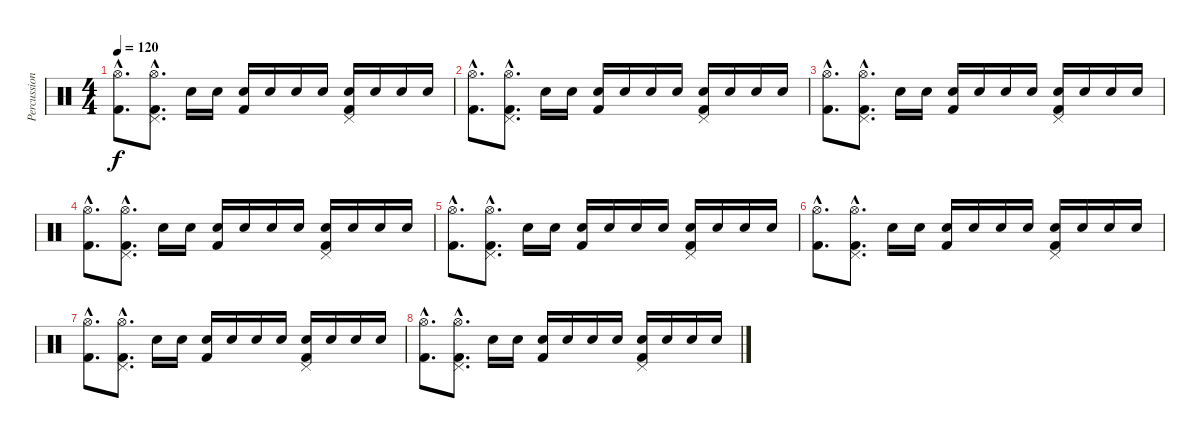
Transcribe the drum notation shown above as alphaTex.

\track ("Percussion" "Percussion") {instrument percussion}
\staff {score}
\articulation defaults
\ts (4 4)
\tempo 120
\clef neutral
\ks c
("Hi-Hat (open)"{hac} "Kick (hit) 2"{hac}).8{d dy f} ("Hi-Hat (open)"{hac} "Kick (hit) 2"{hac} "Pedal Hi-Hat (hit)"{hac}).8{d} "Electric Snare (hit)".16 "Electric Snare (hit)".16 ("Electric Snare (hit)" "Kick (hit) 2").16 "Electric Snare (hit)".16 "Electric Snare (hit)".16 "Electric Snare (hit)".16 ("Electric Snare (hit)" "Kick (hit) 2" "Pedal Hi-Hat (hit)").16 "Electric Snare (hit)".16 "Electric Snare (hit)".16 "Electric Snare (hit)".16 |
("Hi-Hat (open)"{hac} "Kick (hit) 2"{hac}).8{d} ("Hi-Hat (open)"{hac} "Kick (hit) 2"{hac} "Pedal Hi-Hat (hit)"{hac}).8{d} "Electric Snare (hit)".16 "Electric Snare (hit)".16 ("Electric Snare (hit)" "Kick (hit) 2").16 "Electric Snare (hit)".16 "Electric Snare (hit)".16 "Electric Snare (hit)".16 ("Electric Snare (hit)" "Kick (hit) 2" "Pedal Hi-Hat (hit)").16 "Electric Snare (hit)".16 "Electric Snare (hit)".16 "Electric Snare (hit)".16 |
("Hi-Hat (open)"{hac} "Kick (hit) 2"{hac}).8{d} ("Hi-Hat (open)"{hac} "Kick (hit) 2"{hac} "Pedal Hi-Hat (hit)"{hac}).8{d} "Electric Snare (hit)".16 "Electric Snare (hit)".16 ("Electric Snare (hit)" "Kick (hit) 2").16 "Electric Snare (hit)".16 "Electric Snare (hit)".16 "Electric Snare (hit)".16 ("Electric Snare (hit)" "Kick (hit) 2" "Pedal Hi-Hat (hit)").16 "Electric Snare (hit)".16 "Electric Snare (hit)".16 "Electric Snare (hit)".16 |
("Hi-Hat (open)"{hac} "Kick (hit) 2"{hac}).8{d} ("Hi-Hat (open)"{hac} "Kick (hit) 2"{hac} "Pedal Hi-Hat (hit)"{hac}).8{d} "Electric Snare (hit)".16 "Electric Snare (hit)".16 ("Electric Snare (hit)" "Kick (hit) 2").16 "Electric Snare (hit)".16 "Electric Snare (hit)".16 "Electric Snare (hit)".16 ("Electric Snare (hit)" "Kick (hit) 2" "Pedal Hi-Hat (hit)").16 "Electric Snare (hit)".16 "Electric Snare (hit)".16 "Electric Snare (hit)".16 |
("Hi-Hat (open)"{hac} "Kick (hit) 2"{hac}).8{d} ("Hi-Hat (open)"{hac} "Kick (hit) 2"{hac} "Pedal Hi-Hat (hit)"{hac}).8{d} "Electric Snare (hit)".16 "Electric Snare (hit)".16 ("Electric Snare (hit)" "Kick (hit) 2").16 "Electric Snare (hit)".16 "Electric Snare (hit)".16 "Electric Snare (hit)".16 ("Electric Snare (hit)" "Kick (hit) 2" "Pedal Hi-Hat (hit)").16 "Electric Snare (hit)".16 "Electric Snare (hit)".16 "Electric Snare (hit)".16 |
("Hi-Hat (open)"{hac} "Kick (hit) 2"{hac}).8{d} ("Hi-Hat (open)"{hac} "Kick (hit) 2"{hac} "Pedal Hi-Hat (hit)"{hac}).8{d} "Electric Snare (hit)".16 "Electric Snare (hit)".16 ("Electric Snare (hit)" "Kick (hit) 2").16 "Electric Snare (hit)".16 "Electric Snare (hit)".16 "Electric Snare (hit)".16 ("Electric Snare (hit)" "Kick (hit) 2" "Pedal Hi-Hat (hit)").16 "Electric Snare (hit)".16 "Electric Snare (hit)".16 "Electric Snare (hit)".16 |
("Hi-Hat (open)"{hac} "Kick (hit) 2"{hac}).8{d} ("Hi-Hat (open)"{hac} "Kick (hit) 2"{hac} "Pedal Hi-Hat (hit)"{hac}).8{d} "Electric Snare (hit)".16 "Electric Snare (hit)".16 ("Electric Snare (hit)" "Kick (hit) 2").16 "Electric Snare (hit)".16 "Electric Snare (hit)".16 "Electric Snare (hit)".16 ("Electric Snare (hit)" "Kick (hit) 2" "Pedal Hi-Hat (hit)").16 "Electric Snare (hit)".16 "Electric Snare (hit)".16 "Electric Snare (hit)".16 |
("Hi-Hat (open)"{hac} "Kick (hit) 2"{hac}).8{d} ("Hi-Hat (open)"{hac} "Kick (hit) 2"{hac} "Pedal Hi-Hat (hit)"{hac}).8{d} "Electric Snare (hit)".16 "Electric Snare (hit)".16 ("Electric Snare (hit)" "Kick (hit) 2").16 "Electric Snare (hit)".16 "Electric Snare (hit)".16 "Electric Snare (hit)".16 ("Electric Snare (hit)" "Kick (hit) 2" "Pedal Hi-Hat (hit)").16 "Electric Snare (hit)".16 "Electric Snare (hit)".16 "Electric Snare (hit)".16
